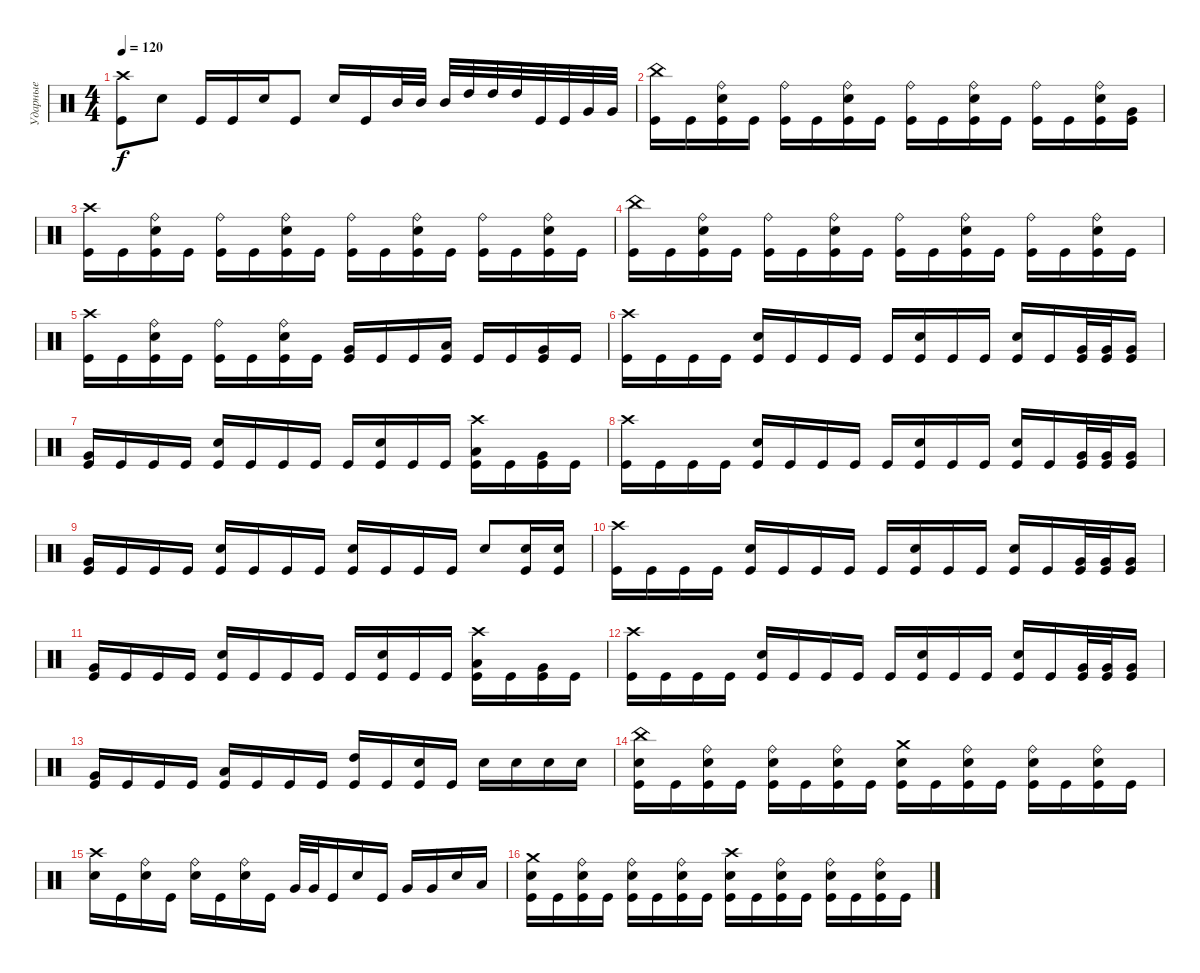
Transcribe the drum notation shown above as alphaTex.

\track ("Ударные" "Ударные") {instrument percussion}
\staff {score}
\articulation defaults
\ts (4 4)
\tempo 120
\clef neutral
\ks c
("Crash high (hit)" "Kick (hit)").8{dy f} "Electric Snare (hit)".8 "Kick (hit)".16 "Kick (hit)".16 "Electric Snare (hit)".16 "Kick (hit)".8 "Electric Snare (hit)".16 "Kick (hit)".16 "Mid Tom (hit)".32 "Mid Tom (hit)".32 "Mid Tom (hit)".32 "High Tom (hit)".32 "High Tom (hit)".32 "High Tom (hit)".32 "Kick (hit)".32 "Kick (hit)".32 "Very Low Tom (hit)".32 "Very Low Tom (hit)".32 |
("China (hit)" "Kick (hit)").16 "Kick (hit)".16 ("Ride (bell)" "Electric Snare (hit)" "Kick (hit)").16 "Kick (hit)".16 ("Ride (bell)" "Kick (hit)").16 "Kick (hit)".16 ("Ride (bell)" "Electric Snare (hit)" "Kick (hit)").16 "Kick (hit)".16 ("Ride (bell)" "Kick (hit)").16 "Kick (hit)".16 ("Ride (bell)" "Electric Snare (hit)" "Kick (hit)").16 "Kick (hit)".16 ("Ride (bell)" "Kick (hit)").16 "Kick (hit)".16 ("Ride (bell)" "Electric Snare (hit)" "Kick (hit)").16 ("Very Low Tom (hit)" "Kick (hit)").16 |
("Crash high (hit)" "Kick (hit)").16 "Kick (hit)".16 ("Ride (bell)" "Electric Snare (hit)" "Kick (hit)").16 "Kick (hit)".16 ("Ride (bell)" "Kick (hit)").16 "Kick (hit)".16 ("Ride (bell)" "Electric Snare (hit)" "Kick (hit)").16 "Kick (hit)".16 ("Ride (bell)" "Kick (hit)").16 "Kick (hit)".16 ("Ride (bell)" "Electric Snare (hit)" "Kick (hit)").16 "Kick (hit)".16 ("Ride (bell)" "Kick (hit)").16 "Kick (hit)".16 ("Ride (bell)" "Electric Snare (hit)" "Kick (hit)").16 "Kick (hit)".16 |
("China (hit)" "Kick (hit)").16 "Kick (hit)".16 ("Ride (bell)" "Electric Snare (hit)" "Kick (hit)").16 "Kick (hit)".16 ("Ride (bell)" "Kick (hit)").16 "Kick (hit)".16 ("Ride (bell)" "Electric Snare (hit)" "Kick (hit)").16 "Kick (hit)".16 ("Ride (bell)" "Kick (hit)").16 "Kick (hit)".16 ("Ride (bell)" "Electric Snare (hit)" "Kick (hit)").16 "Kick (hit)".16 ("Ride (bell)" "Kick (hit)").16 "Kick (hit)".16 ("Ride (bell)" "Electric Snare (hit)" "Kick (hit)").16 "Kick (hit)".16 |
("Crash high (hit)" "Kick (hit)").16 "Kick (hit)".16 ("Ride (bell)" "Electric Snare (hit)" "Kick (hit)").16 "Kick (hit)".16 ("Ride (bell)" "Kick (hit)").16 "Kick (hit)".16 ("Ride (bell)" "Electric Snare (hit)" "Kick (hit)").16 "Kick (hit)".16 ("Very Low Tom (hit)" "Kick (hit)").16 "Kick (hit)".16 "Kick (hit)".16 ("Low Tom (hit)" "Kick (hit)").16 "Kick (hit)".16 "Kick (hit)".16 ("Very Low Tom (hit)" "Kick (hit)").16 "Kick (hit)".16 |
("Crash high (hit)" "Kick (hit)").16 "Kick (hit)".16 "Kick (hit)".16 "Kick (hit)".16 ("Electric Snare (hit)" "Kick (hit)").16 "Kick (hit)".16 "Kick (hit)".16 "Kick (hit)".16 "Kick (hit)".16 ("Electric Snare (hit)" "Kick (hit)").16 "Kick (hit)".16 "Kick (hit)".16 ("Electric Snare (hit)" "Kick (hit)").16 "Kick (hit)".16 ("Very Low Tom (hit)" "Kick (hit)").32 ("Very Low Tom (hit)" "Kick (hit)").32 ("Very Low Tom (hit)" "Kick (hit)").16 |
("Very Low Tom (hit)" "Kick (hit)").16 "Kick (hit)".16 "Kick (hit)".16 "Kick (hit)".16 ("Electric Snare (hit)" "Kick (hit)").16 "Kick (hit)".16 "Kick (hit)".16 "Kick (hit)".16 "Kick (hit)".16 ("Electric Snare (hit)" "Kick (hit)").16 "Kick (hit)".16 "Kick (hit)".16 ("Crash high (hit)" "Low Tom (hit)" "Kick (hit)").16 "Kick (hit)".16 ("Very Low Tom (hit)" "Kick (hit)").16 "Kick (hit)".16 |
("Crash high (hit)" "Kick (hit)").16 "Kick (hit)".16 "Kick (hit)".16 "Kick (hit)".16 ("Electric Snare (hit)" "Kick (hit)").16 "Kick (hit)".16 "Kick (hit)".16 "Kick (hit)".16 "Kick (hit)".16 ("Electric Snare (hit)" "Kick (hit)").16 "Kick (hit)".16 "Kick (hit)".16 ("Electric Snare (hit)" "Kick (hit)").16 "Kick (hit)".16 ("Very Low Tom (hit)" "Kick (hit)").32 ("Very Low Tom (hit)" "Kick (hit)").32 ("Very Low Tom (hit)" "Kick (hit)").16 |
("Very Low Tom (hit)" "Kick (hit)").16 "Kick (hit)".16 "Kick (hit)".16 "Kick (hit)".16 ("Electric Snare (hit)" "Kick (hit)").16 "Kick (hit)".16 "Kick (hit)".16 "Kick (hit)".16 ("Electric Snare (hit)" "Kick (hit)").16 "Kick (hit)".16 "Kick (hit)".16 "Kick (hit)".16 "Electric Snare (hit)".8 ("Electric Snare (hit)" "Kick (hit)").16 ("Electric Snare (hit)" "Kick (hit)").16 |
("Crash high (hit)" "Kick (hit)").16 "Kick (hit)".16 "Kick (hit)".16 "Kick (hit)".16 ("Electric Snare (hit)" "Kick (hit)").16 "Kick (hit)".16 "Kick (hit)".16 "Kick (hit)".16 "Kick (hit)".16 ("Electric Snare (hit)" "Kick (hit)").16 "Kick (hit)".16 "Kick (hit)".16 ("Electric Snare (hit)" "Kick (hit)").16 "Kick (hit)".16 ("Very Low Tom (hit)" "Kick (hit)").32 ("Very Low Tom (hit)" "Kick (hit)").32 ("Very Low Tom (hit)" "Kick (hit)").16 |
("Very Low Tom (hit)" "Kick (hit)").16 "Kick (hit)".16 "Kick (hit)".16 "Kick (hit)".16 ("Electric Snare (hit)" "Kick (hit)").16 "Kick (hit)".16 "Kick (hit)".16 "Kick (hit)".16 "Kick (hit)".16 ("Electric Snare (hit)" "Kick (hit)").16 "Kick (hit)".16 "Kick (hit)".16 ("Crash high (hit)" "Low Tom (hit)" "Kick (hit)").16 "Kick (hit)".16 ("Very Low Tom (hit)" "Kick (hit)").16 "Kick (hit)".16 |
("Crash high (hit)" "Kick (hit)").16 "Kick (hit)".16 "Kick (hit)".16 "Kick (hit)".16 ("Electric Snare (hit)" "Kick (hit)").16 "Kick (hit)".16 "Kick (hit)".16 "Kick (hit)".16 "Kick (hit)".16 ("Electric Snare (hit)" "Kick (hit)").16 "Kick (hit)".16 "Kick (hit)".16 ("Electric Snare (hit)" "Kick (hit)").16 "Kick (hit)".16 ("Very Low Tom (hit)" "Kick (hit)").32 ("Very Low Tom (hit)" "Kick (hit)").32 ("Very Low Tom (hit)" "Kick (hit)").16 |
("Very Low Tom (hit)" "Kick (hit)").16 "Kick (hit)".16 "Kick (hit)".16 "Kick (hit)".16 ("Low Tom (hit)" "Kick (hit)").16 "Kick (hit)".16 "Kick (hit)".16 "Kick (hit)".16 ("High Tom (hit)" "Kick (hit)").16 "Kick (hit)".16 ("Electric Snare (hit)" "Kick (hit)").16 "Kick (hit)".16 "Electric Snare (hit)".16 "Electric Snare (hit)".16 "Electric Snare (hit)".16 "Electric Snare (hit)".16 |
("China (hit)" "Electric Snare (hit)" "Kick (hit)").16 "Kick (hit)".16 ("Ride (bell)" "Electric Snare (hit)" "Kick (hit)").16 "Kick (hit)".16 ("Ride (bell)" "Electric Snare (hit)" "Kick (hit)").16 "Kick (hit)".16 ("Ride (bell)" "Electric Snare (hit)" "Kick (hit)").16 "Kick (hit)".16 ("Crash medium (hit)" "Electric Snare (hit)" "Kick (hit)").16 "Kick (hit)".16 ("Ride (bell)" "Electric Snare (hit)" "Kick (hit)").16 "Kick (hit)".16 ("Ride (bell)" "Electric Snare (hit)" "Kick (hit)").16 "Kick (hit)".16 ("Ride (bell)" "Electric Snare (hit)" "Kick (hit)").16 "Kick (hit)".16 |
("Crash high (hit)" "Electric Snare (hit)").16 "Kick (hit)".16 ("Ride (bell)" "Electric Snare (hit)").16 "Kick (hit)".16 ("Ride (bell)" "Electric Snare (hit)").16 "Kick (hit)".16 ("Ride (bell)" "Electric Snare (hit)").16 "Kick (hit)".16 "Very Low Tom (hit)".32 "Very Low Tom (hit)".32 "Kick (hit)".16 "Electric Snare (hit)".16 "Kick (hit)".16 "Very Low Tom (hit)".16 "Very Low Tom (hit)".16 "Electric Snare (hit)".16 "Low Tom (hit)".16 |
("Crash medium (hit)" "Electric Snare (hit)" "Kick (hit)").16 "Kick (hit)".16 ("Ride (bell)" "Electric Snare (hit)" "Kick (hit)").16 "Kick (hit)".16 ("Ride (bell)" "Electric Snare (hit)" "Kick (hit)").16 "Kick (hit)".16 ("Ride (bell)" "Electric Snare (hit)" "Kick (hit)").16 "Kick (hit)".16 ("Crash high (hit)" "Electric Snare (hit)" "Kick (hit)").16 "Kick (hit)".16 ("Ride (bell)" "Electric Snare (hit)" "Kick (hit)").16 "Kick (hit)".16 ("Ride (bell)" "Electric Snare (hit)" "Kick (hit)").16 "Kick (hit)".16 ("Ride (bell)" "Electric Snare (hit)" "Kick (hit)").16 "Kick (hit)".16
